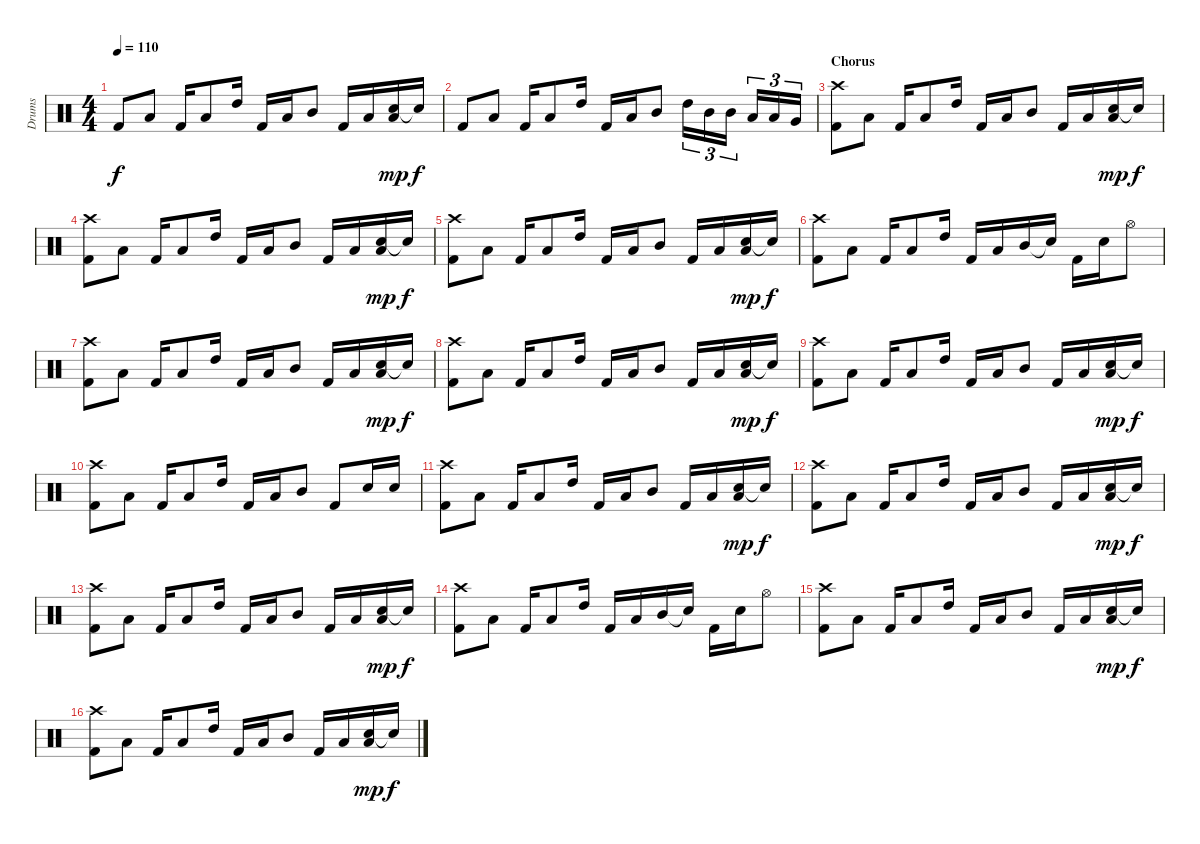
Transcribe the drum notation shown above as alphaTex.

\track ("Drums" "Drums") {instrument percussion}
\staff {score}
\articulation defaults
\ts (4 4)
\tempo 110
\clef neutral
\ks c "Kick (hit) 2".8{dy f} "Low Tom (hit)".8 "Kick (hit) 2".16 "Low Tom (hit)".8 "High Tom (hit)".16 "Kick (hit) 2".16 "Low Tom (hit)".16 "Mid Tom (hit)".8 "Kick (hit) 2".16 "Low Tom (hit)".16
("Snare (hit) 2" "Low Tom (hit)").16{dy mp} "Snare (hit)"{t}.16{dy f} |
"Kick (hit) 2".8 "Low Tom (hit)".8 "Kick (hit) 2".16 "Low Tom (hit)".8 "High Tom (hit)".16 "Kick (hit) 2".16 "Low Tom (hit)".16 "Mid Tom (hit)".8 "High Tom (hit)".16{tu (3 2)} "Mid Tom (hit)".16{tu (3 2)} "Mid Tom (hit)".16{tu (3 2) beam splitsecondary} "Low Tom (hit)".16{tu (3 2)} "Low Tom (hit)".16{tu (3 2)} "Very Low Tom (hit)".16{tu (3 2)} |
\section ("" "Chorus")
("Crash high (hit)" "Kick (hit) 2").8 "Low Tom (hit)".8 "Kick (hit) 2".16 "Low Tom (hit)".8 "High Tom (hit)".16 "Kick (hit) 2".16 "Low Tom (hit)".16 "Mid Tom (hit)".8 "Kick (hit) 2".16 "Low Tom (hit)".16 ("Snare (hit) 2" "Low Tom (hit)").16{dy mp} "Snare (hit)"{t}.16{dy f} |
("Crash high (hit)" "Kick (hit) 2").8 "Low Tom (hit)".8 "Kick (hit) 2".16 "Low Tom (hit)".8 "High Tom (hit)".16 "Kick (hit) 2".16 "Low Tom (hit)".16 "Mid Tom (hit)".8 "Kick (hit) 2".16 "Low Tom (hit)".16 ("Snare (hit) 2" "Low Tom (hit)").16{dy mp} "Snare (hit)"{t}.16{dy f} |
("Crash high (hit)" "Kick (hit) 2").8 "Low Tom (hit)".8 "Kick (hit) 2".16 "Low Tom (hit)".8 "High Tom (hit)".16 "Kick (hit) 2".16 "Low Tom (hit)".16 "Mid Tom (hit)".8 "Kick (hit) 2".16 "Low Tom (hit)".16 ("Snare (hit) 2" "Low Tom (hit)").16{dy mp} "Snare (hit)"{t}.16{dy f} |
("Crash high (hit)" "Kick (hit) 2").8 "Low Tom (hit)".8 "Kick (hit) 2".16 "Low Tom (hit)".8 "High Tom (hit)".16 "Kick (hit) 2".16 "Low Tom (hit)".16 "Mid Tom (hit)".16 "Snare (hit)"{t}.16 "Kick (hit) 2".16 "Snare (hit) 2".16 "Hi-Hat (open)".8 |
("Crash high (hit)" "Kick (hit) 2").8 "Low Tom (hit)".8 "Kick (hit) 2".16 "Low Tom (hit)".8 "High Tom (hit)".16 "Kick (hit) 2".16 "Low Tom (hit)".16 "Mid Tom (hit)".8 "Kick (hit) 2".16 "Low Tom (hit)".16 ("Snare (hit) 2" "Low Tom (hit)").16{dy mp} "Snare (hit)"{t}.16{dy f} |
("Crash high (hit)" "Kick (hit) 2").8 "Low Tom (hit)".8 "Kick (hit) 2".16 "Low Tom (hit)".8 "High Tom (hit)".16 "Kick (hit) 2".16 "Low Tom (hit)".16 "Mid Tom (hit)".8 "Kick (hit) 2".16 "Low Tom (hit)".16 ("Snare (hit) 2" "Low Tom (hit)").16{dy mp} "Snare (hit)"{t}.16{dy f} |
("Crash high (hit)" "Kick (hit) 2").8 "Low Tom (hit)".8 "Kick (hit) 2".16 "Low Tom (hit)".8 "High Tom (hit)".16 "Kick (hit) 2".16 "Low Tom (hit)".16 "Mid Tom (hit)".8 "Kick (hit) 2".16 "Low Tom (hit)".16 ("Snare (hit) 2" "Low Tom (hit)").16{dy mp} "Snare (hit)"{t}.16{dy f} |
("Crash high (hit)" "Kick (hit) 2").8 "Low Tom (hit)".8 "Kick (hit) 2".16 "Low Tom (hit)".8 "High Tom (hit)".16 "Kick (hit) 2".16 "Low Tom (hit)".16 "Mid Tom (hit)".8 "Kick (hit) 2".8 "Snare (hit) 2".16 "Snare (hit) 2".16 |
("Crash high (hit)" "Kick (hit) 2").8 "Low Tom (hit)".8 "Kick (hit) 2".16 "Low Tom (hit)".8 "High Tom (hit)".16 "Kick (hit) 2".16 "Low Tom (hit)".16 "Mid Tom (hit)".8 "Kick (hit) 2".16 "Low Tom (hit)".16 ("Snare (hit) 2" "Low Tom (hit)").16{dy mp} "Snare (hit)"{t}.16{dy f} |
("Crash high (hit)" "Kick (hit) 2").8 "Low Tom (hit)".8 "Kick (hit) 2".16 "Low Tom (hit)".8 "High Tom (hit)".16 "Kick (hit) 2".16 "Low Tom (hit)".16 "Mid Tom (hit)".8 "Kick (hit) 2".16 "Low Tom (hit)".16 ("Snare (hit) 2" "Low Tom (hit)").16{dy mp} "Snare (hit)"{t}.16{dy f} |
("Crash high (hit)" "Kick (hit) 2").8 "Low Tom (hit)".8 "Kick (hit) 2".16 "Low Tom (hit)".8 "High Tom (hit)".16 "Kick (hit) 2".16 "Low Tom (hit)".16 "Mid Tom (hit)".8 "Kick (hit) 2".16 "Low Tom (hit)".16 ("Snare (hit) 2" "Low Tom (hit)").16{dy mp} "Snare (hit)"{t}.16{dy f} |
("Crash high (hit)" "Kick (hit) 2").8 "Low Tom (hit)".8 "Kick (hit) 2".16 "Low Tom (hit)".8 "High Tom (hit)".16 "Kick (hit) 2".16 "Low Tom (hit)".16 "Mid Tom (hit)".16 "Snare (hit)"{t}.16 "Kick (hit) 2".16 "Snare (hit) 2".16 "Hi-Hat (open)".8 |
("Crash high (hit)" "Kick (hit) 2").8 "Low Tom (hit)".8 "Kick (hit) 2".16 "Low Tom (hit)".8 "High Tom (hit)".16 "Kick (hit) 2".16 "Low Tom (hit)".16 "Mid Tom (hit)".8 "Kick (hit) 2".16 "Low Tom (hit)".16 ("Snare (hit) 2" "Low Tom (hit)").16{dy mp} "Snare (hit)"{t}.16{dy f} |
("Crash high (hit)" "Kick (hit) 2").8 "Low Tom (hit)".8 "Kick (hit) 2".16 "Low Tom (hit)".8 "High Tom (hit)".16 "Kick (hit) 2".16 "Low Tom (hit)".16 "Mid Tom (hit)".8 "Kick (hit) 2".16 "Low Tom (hit)".16 ("Snare (hit) 2" "Low Tom (hit)").16{dy mp} "Snare (hit)"{t}.16{dy f}
